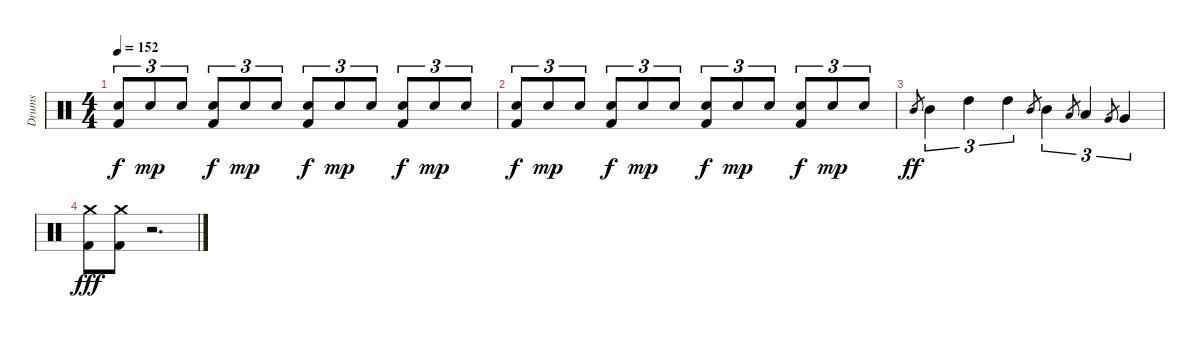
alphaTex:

\track ("Drums" "Drums") {instrument percussion}
\staff {score}
\articulation defaults
\ts (4 4)
\tempo 152
\clef neutral
\ks c
("Snare (hit) 2" "Kick (hit) 2").8{tu (3 2) dy f} "Snare (hit) 2".8{tu (3 2) dy mp} "Snare (hit) 2".8{tu (3 2)} ("Snare (hit) 2" "Kick (hit) 2").8{tu (3 2) dy f} "Snare (hit) 2".8{tu (3 2) dy mp} "Snare (hit) 2".8{tu (3 2)} ("Snare (hit) 2" "Kick (hit) 2").8{tu (3 2) dy f} "Snare (hit) 2".8{tu (3 2) dy mp} "Snare (hit) 2".8{tu (3 2)} ("Snare (hit) 2" "Kick (hit) 2").8{tu (3 2) dy f} "Snare (hit) 2".8{tu (3 2) dy mp} "Snare (hit) 2".8{tu (3 2)} |
("Snare (hit) 2" "Kick (hit) 2").8{tu (3 2) dy f} "Snare (hit) 2".8{tu (3 2) dy mp} "Snare (hit) 2".8{tu (3 2)} ("Snare (hit) 2" "Kick (hit) 2").8{tu (3 2) dy f} "Snare (hit) 2".8{tu (3 2) dy mp} "Snare (hit) 2".8{tu (3 2)} ("Snare (hit) 2" "Kick (hit) 2").8{tu (3 2) dy f} "Snare (hit) 2".8{tu (3 2) dy mp} "Snare (hit) 2".8{tu (3 2)} ("Snare (hit) 2" "Kick (hit) 2").8{tu (3 2) dy f} "Snare (hit) 2".8{tu (3 2) dy mp} "Snare (hit) 2".8{tu (3 2)} |
"Mid Tom (hit)".8{gr dy ff} "Mid Tom (hit)".4{tu (3 2)} "High Tom (hit)".4{tu (3 2)} "High Tom (hit)".4{tu (3 2)} "Mid Tom (hit)".8{gr} "Mid Tom (hit)".4{tu (3 2)} "Low Tom (hit)".8{gr} "Low Tom (hit)".4{tu (3 2)} "Very Low Tom (hit)".8{gr} "Very Low Tom (hit)".4{tu (3 2)} |
("Crash medium (hit)" "Kick (hit) 2").8{dy fff} ("Crash medium (hit)" "Kick (hit) 2").8 r.2{d}
